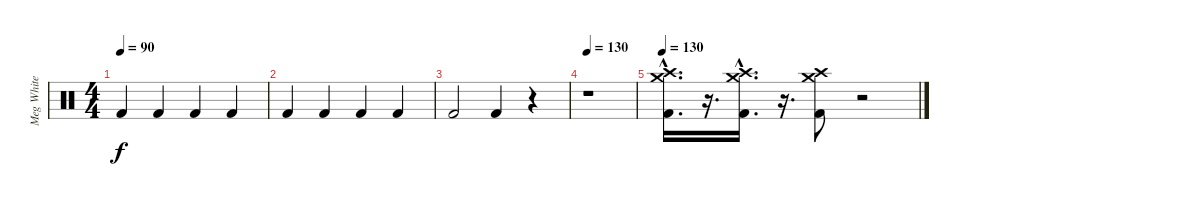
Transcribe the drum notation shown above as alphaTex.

\track ("Meg White" "Meg White") {instrument percussion}
\staff {score}
\articulation defaults
\ts (4 4)
\tempo 90
\clef neutral
\ks c "Kick (hit) 2".4{dy f} "Kick (hit) 2".4 "Kick (hit) 2".4 "Kick (hit) 2".4
|
"Kick (hit) 2".4 "Kick (hit) 2".4 "Kick (hit) 2".4 "Kick (hit) 2".4 |
"Kick (hit) 2".2 "Kick (hit) 2".4 r.4 |
\tempo 130
r.1 |
\tempo 130
("Kick (hit) 2"{hac} "Crash high (hit)"{hac} "Crash medium (hit)"{hac}).16{d} r.16{d} ("Kick (hit) 2"{hac} "Crash high (hit)"{hac} "Crash medium (hit)"{hac}).16{d} r.16{d} ("Kick (hit) 2" "Crash high (hit)" "Crash medium (hit)").8 r.2
